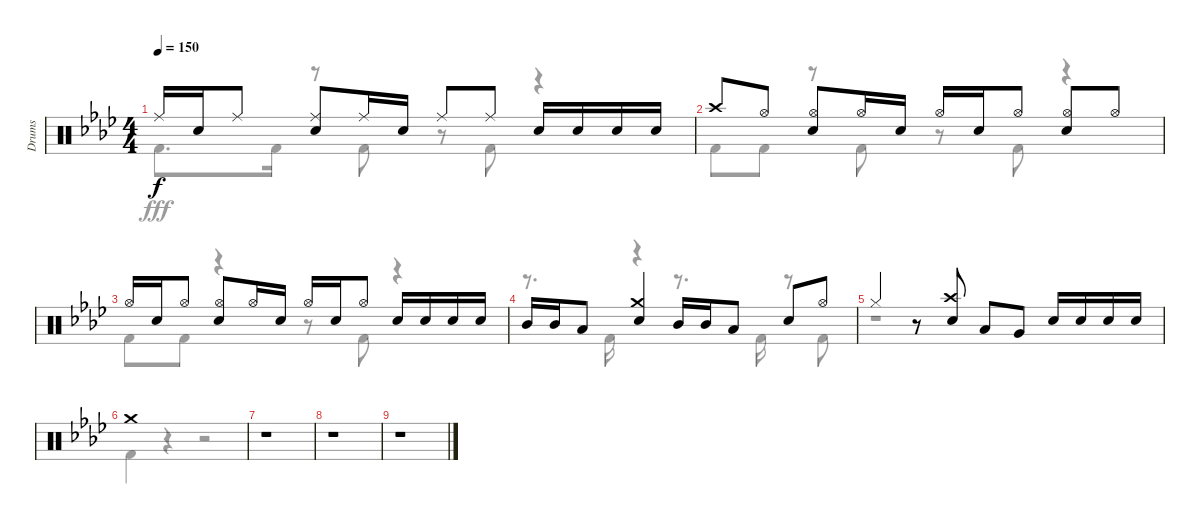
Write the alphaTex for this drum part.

\track ("Drums" "Drums") {instrument percussion}
\staff {score}
\articulation defaults
\voice
\ts (4 4)
\tempo 150
\clef neutral
\ks ab "Ride (middle)".16{dy f} "Snare (hit) 2".16 "Ride (middle)".8
("Ride (middle)" "Snare (hit) 2").8 "Ride (middle)".16 "Snare (hit) 2".16 "Ride (middle)".8 "Ride (middle)".8 "Snare (hit) 2".16 "Snare (hit) 2".16 "Snare (hit) 2".16 "Snare (hit) 2".16 |
"Crash high (hit)".8 "Hi-Hat (open)".8 ("Hi-Hat (open)" "Snare (hit) 2").8 "Hi-Hat (open)".16 "Snare (hit) 2".16 "Hi-Hat (open)".16 "Snare (hit) 2".16 "Hi-Hat (open)".8 ("Hi-Hat (open)" "Snare (hit) 2").8 "Hi-Hat (open)".8 |
"Hi-Hat (open)".16 "Snare (hit) 2".16 "Hi-Hat (open)".8 ("Hi-Hat (open)" "Snare (hit) 2").8 "Hi-Hat (open)".16 "Snare (hit) 2".16 "Hi-Hat (open)".16 "Snare (hit) 2".16 "Hi-Hat (open)".8 "Snare (hit) 2".16 "Snare (hit) 2".16 "Snare (hit) 2".16 "Snare (hit) 2".16 |
"Mid Tom (hit)".16 "Mid Tom (hit)".16 "Low Tom (hit)".8 ("Crash medium (hit)" "Snare (hit) 2").4 "Mid Tom (hit)".16 "Mid Tom (hit)".16 "Low Tom (hit)".8 "Snare (hit) 2".8 "Hi-Hat (open)".8 |
"Hi-Hat (closed)".4 r.8 ("Crash high (hit)" "Snare (hit) 2").8 "Low Tom (hit)".8 "Very Low Tom (hit)".8 "Snare (hit) 2".16 "Snare (hit) 2".16 "Snare (hit) 2".16 "Snare (hit) 2".16 |
"Crash medium (hit)".1 |
r.1 |
r.1 |
r.1
\voice
\clef neutral
\ottava regular
\simile none
\ks ab "Kick (hit) 2".8{d dy fff} "Kick (hit) 2".16
r.8 "Kick (hit) 2".8 r.8 "Kick (hit) 2".8 r.4 |
"Kick (hit) 2".8 "Kick (hit) 2".8 r.8 "Kick (hit) 2".8 r.8 "Kick (hit) 2".8 r.4 |
"Kick (hit) 2".8 "Kick (hit) 2".8 r.4 r.8 "Kick (hit) 2".8 r.4 |
r.8{d} "Kick (hit) 2".16 r.4 r.8{d} "Kick (hit) 2".16 r.8 "Kick (hit) 2".8 |
r.1 |
"Kick (hit) 2".4 r.4 r.2 |
r.1 |
r.1 |
r.1
